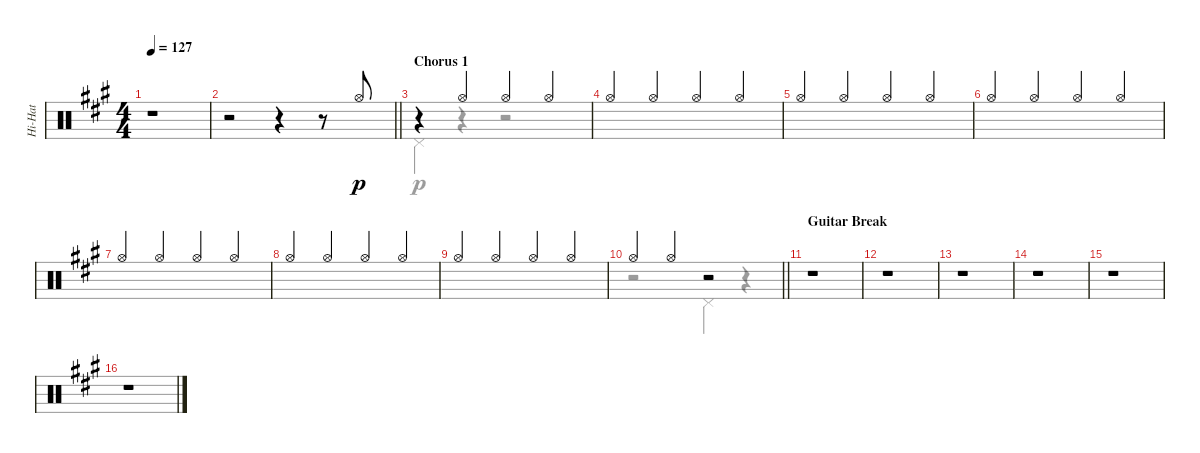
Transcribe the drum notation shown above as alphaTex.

\track ("Hi-Hat" "Hi-Hat") {instrument percussion}
\staff {score}
\articulation defaults
\voice
\ts (4 4)
\tempo 127
\clef neutral
\ks a
r.1{dy mp} |
\barLineRight lightlight
r.2 r.4 r.8 "Hi-Hat (open)".8{dy p beam Up} |
\section ("" "Chorus 1")
r.4 "Hi-Hat (open)".4{volume 9 beam Up} "Hi-Hat (open)".4{beam Up} "Hi-Hat (open)".4{beam Up} |
"Hi-Hat (open)".4{beam Up} "Hi-Hat (open)".4{beam Up} "Hi-Hat (open)".4{beam Up} "Hi-Hat (open)".4{beam Up} |
"Hi-Hat (open)".4{beam Up} "Hi-Hat (open)".4{beam Up} "Hi-Hat (open)".4{beam Up} "Hi-Hat (open)".4{beam Up} |
"Hi-Hat (open)".4{beam Up} "Hi-Hat (open)".4{beam Up} "Hi-Hat (open)".4{beam Up} "Hi-Hat (open)".4{beam Up} |
"Hi-Hat (open)".4{beam Up} "Hi-Hat (open)".4{beam Up} "Hi-Hat (open)".4{beam Up} "Hi-Hat (open)".4{beam Up} |
"Hi-Hat (open)".4{beam Up} "Hi-Hat (open)".4{beam Up} "Hi-Hat (open)".4{beam Up} "Hi-Hat (open)".4{beam Up} |
"Hi-Hat (open)".4{beam Up} "Hi-Hat (open)".4{beam Up} "Hi-Hat (open)".4{beam Up} "Hi-Hat (open)".4{beam Up} |
\barLineRight lightlight "Hi-Hat (open)".4{beam Up} "Hi-Hat (open)".4{beam Up}
r.2 |
\section ("" "Guitar Break")
r.1 |
r.1 |
r.1 |
r.1 |
r.1 |
r.1
\voice
\clef neutral
\ottava regular
\simile none
\ks a
|
\barLineRight lightlight
|
"Pedal Hi-Hat (hit)".4 r.4 r.2 |
|
|
|
|
|
|
\barLineRight lightlight
r.2 "Pedal Hi-Hat (hit)".4{dy p} r.4 |
|
|
|
|
|
